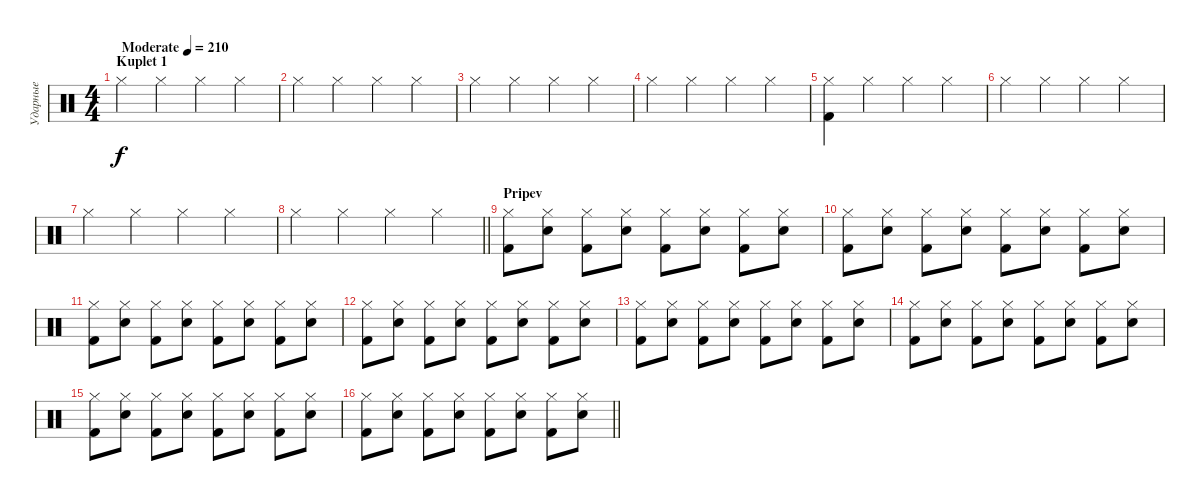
\track ("Ударные" "Ударные") {instrument percussion}
\staff {score}
\articulation defaults
\ts (4 4)
\section ("" "Kuplet 1")
\tempo (210 "Moderate")
\clef neutral
\ks c "Hi-Hat (closed)".4{dy f} "Hi-Hat (closed)".4 "Hi-Hat (closed)".4 "Hi-Hat (closed)".4
|
"Hi-Hat (closed)".4 "Hi-Hat (closed)".4 "Hi-Hat (closed)".4 "Hi-Hat (closed)".4 |
"Hi-Hat (closed)".4 "Hi-Hat (closed)".4 "Hi-Hat (closed)".4 "Hi-Hat (closed)".4 |
"Hi-Hat (closed)".4 "Hi-Hat (closed)".4 "Hi-Hat (closed)".4 "Hi-Hat (closed)".4 |
("Hi-Hat (closed)" "Kick (hit) 2").4 "Hi-Hat (closed)".4 "Hi-Hat (closed)".4 "Hi-Hat (closed)".4 |
"Hi-Hat (closed)".4 "Hi-Hat (closed)".4 "Hi-Hat (closed)".4 "Hi-Hat (closed)".4 |
"Hi-Hat (closed)".4 "Hi-Hat (closed)".4 "Hi-Hat (closed)".4 "Hi-Hat (closed)".4 |
\barLineRight lightlight "Hi-Hat (closed)".4 "Hi-Hat (closed)".4 "Hi-Hat (closed)".4 "Hi-Hat (closed)".4
|
\section ("" "Pripev")
("Hi-Hat (closed)" "Kick (hit) 2").8 ("Hi-Hat (closed)" "Snare (hit) 2").8 ("Hi-Hat (closed)" "Kick (hit) 2").8 ("Hi-Hat (closed)" "Snare (hit) 2").8 ("Hi-Hat (closed)" "Kick (hit) 2").8 ("Hi-Hat (closed)" "Snare (hit) 2").8 ("Hi-Hat (closed)" "Kick (hit) 2").8 ("Hi-Hat (closed)" "Snare (hit) 2").8 |
("Hi-Hat (closed)" "Kick (hit) 2").8 ("Hi-Hat (closed)" "Snare (hit) 2").8 ("Hi-Hat (closed)" "Kick (hit) 2").8 ("Hi-Hat (closed)" "Snare (hit) 2").8 ("Hi-Hat (closed)" "Kick (hit) 2").8 ("Hi-Hat (closed)" "Snare (hit) 2").8 ("Hi-Hat (closed)" "Kick (hit) 2").8 ("Hi-Hat (closed)" "Snare (hit) 2").8 |
("Hi-Hat (closed)" "Kick (hit) 2").8 ("Hi-Hat (closed)" "Snare (hit) 2").8 ("Hi-Hat (closed)" "Kick (hit) 2").8 ("Hi-Hat (closed)" "Snare (hit) 2").8 ("Hi-Hat (closed)" "Kick (hit) 2").8 ("Hi-Hat (closed)" "Snare (hit) 2").8 ("Hi-Hat (closed)" "Kick (hit) 2").8 ("Hi-Hat (closed)" "Snare (hit) 2").8 |
("Hi-Hat (closed)" "Kick (hit) 2").8 ("Hi-Hat (closed)" "Snare (hit) 2").8 ("Hi-Hat (closed)" "Kick (hit) 2").8 ("Hi-Hat (closed)" "Snare (hit) 2").8 ("Hi-Hat (closed)" "Kick (hit) 2").8 ("Hi-Hat (closed)" "Snare (hit) 2").8 ("Hi-Hat (closed)" "Kick (hit) 2").8 ("Hi-Hat (closed)" "Snare (hit) 2").8 |
("Hi-Hat (closed)" "Kick (hit) 2").8 ("Hi-Hat (closed)" "Snare (hit) 2").8 ("Hi-Hat (closed)" "Kick (hit) 2").8 ("Hi-Hat (closed)" "Snare (hit) 2").8 ("Hi-Hat (closed)" "Kick (hit) 2").8 ("Hi-Hat (closed)" "Snare (hit) 2").8 ("Hi-Hat (closed)" "Kick (hit) 2").8 ("Hi-Hat (closed)" "Snare (hit) 2").8 |
("Hi-Hat (closed)" "Kick (hit) 2").8 ("Hi-Hat (closed)" "Snare (hit) 2").8 ("Hi-Hat (closed)" "Kick (hit) 2").8 ("Hi-Hat (closed)" "Snare (hit) 2").8 ("Hi-Hat (closed)" "Kick (hit) 2").8 ("Hi-Hat (closed)" "Snare (hit) 2").8 ("Hi-Hat (closed)" "Kick (hit) 2").8 ("Hi-Hat (closed)" "Snare (hit) 2").8 |
("Hi-Hat (closed)" "Kick (hit) 2").8 ("Hi-Hat (closed)" "Snare (hit) 2").8 ("Hi-Hat (closed)" "Kick (hit) 2").8 ("Hi-Hat (closed)" "Snare (hit) 2").8 ("Hi-Hat (closed)" "Kick (hit) 2").8 ("Hi-Hat (closed)" "Snare (hit) 2").8 ("Hi-Hat (closed)" "Kick (hit) 2").8 ("Hi-Hat (closed)" "Snare (hit) 2").8 |
\barLineRight lightlight
("Hi-Hat (closed)" "Kick (hit) 2").8 ("Hi-Hat (closed)" "Snare (hit) 2").8 ("Hi-Hat (closed)" "Kick (hit) 2").8 ("Hi-Hat (closed)" "Snare (hit) 2").8 ("Hi-Hat (closed)" "Kick (hit) 2").8 ("Hi-Hat (closed)" "Snare (hit) 2").8 ("Hi-Hat (closed)" "Kick (hit) 2").8 ("Hi-Hat (closed)" "Snare (hit) 2").8
